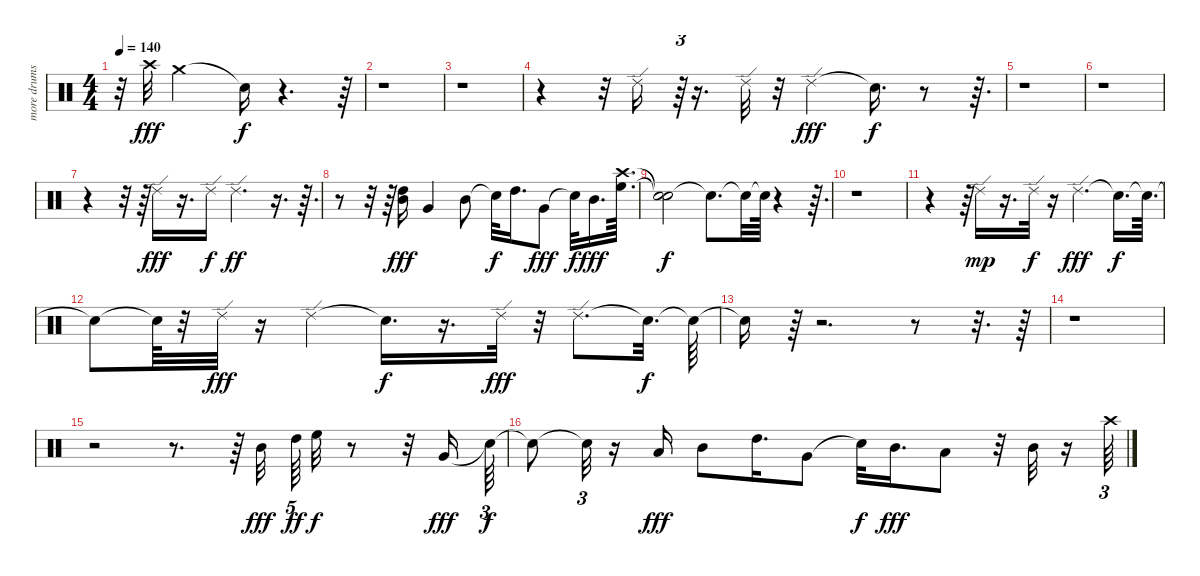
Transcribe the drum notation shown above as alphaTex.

\track ("more drums" "more drums") {instrument percussion}
\staff {score}
\articulation defaults
\ts (4 4)
\tempo 140
\clef neutral
\ks c
r.32{dy ff} "Crash high (hit)".32{dy fff} "Crash medium (hit)".2 "Snare (hit)"{t}.16{dy f} r.4{d} r.64 |
r.1 |
r.1 |
r.4 r.32 "Ride (edge) 2".16 r.64{tu (3 2)} r.16{d} "Ride (edge) 2".32 r.32 "Ride (edge) 2".4{dy fff} "Snare (hit)"{t}.16{d dy f} r.8 r.64{d} |
r.1 |
r.1 |
r.4 r.32 r.64 "Ride (edge) 2".16{dy fff} r.16{d} "Ride (edge) 2".16{dy f} "Ride (edge) 2".4{d dy ff} r.16{d} r.64{d} |
r.8 r.32 r.64 ("Mid Tom (hit)" "High Tom (hit)").16{dy fff} "Very Low Tom (hit)".4 "Mid Tom (hit)".8 "Snare (hit)"{t}.32{dy f} "High Tom (hit)".16{d} "Very Low Tom (hit)".8{dy fff} "Snare (hit)"{t}.32{dy f} "Mid Tom (hit)".16{d dy fff} ("Crash high (hit)" "High Floor Tom (hit)").64{d} |
("Snare (hit)"{t} "Snare (hit)"{t}).2{dy f} "Snare (hit)"{t}.8{d} "Snare (hit)"{t}.32 "Snare (hit)"{t}.64 r.4 r.64{d} |
r.1 |
r.4 r.64 "Ride (edge) 2".16{dy mp} r.16{d} "Ride (edge) 2".32{dy f} r.16 "Ride (edge) 2".4{d dy fff} "Snare (hit)"{t}.16{d dy f} "Snare (hit)"{t}.64{d} |
"Snare (hit)"{t}.8 "Snare (hit)"{t}.64 r.32 "Ride (edge) 2".32{dy fff} r.16 "Ride (edge) 2".4 "Snare (hit)"{t}.16{d dy f} r.16{d} "Ride (edge) 2".32{dy fff} r.32 "Ride (edge) 2".8{d} "Snare (hit)"{t}.32{d dy f} "Snare (hit)"{t}.64 |
"Snare (hit)"{t}.16 r.64 r.2{d} r.8 r.32{d} r.64 |
r.1 |
r.2 r.8{d} r.64 "Mid Tom (hit)".32{dy fff beam splitsecondary} "High Tom (hit)".64{tu (5 4) dy ff} "High Floor Tom (hit)".32{dy f} r.8 r.32 "Very Low Tom (hit)".16{dy fff} "Snare (hit)"{t}.64{tu (3 2) dy f} |
"Snare (hit)"{t}.8 "Snare (hit)"{t}.32{tu (3 2)} r.16 "Low Tom (hit)".16{dy fff} "Mid Tom (hit)".8 "High Tom (hit)".16{d} "Very Low Tom (hit)".8 "Snare (hit)"{t}.32{dy f} "Mid Tom (hit)".16{d dy fff} "Low Tom (hit)".8 r.32 "Mid Tom (hit)".32 r.16 "Crash high (hit)".64{tu (3 2)}
